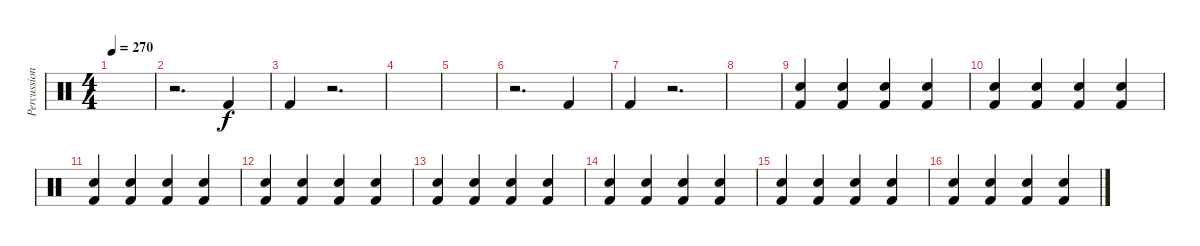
\track ("Percussion" "Percussion") {instrument percussion}
\staff {score}
\articulation defaults
\ts (4 4)
\tempo 270
\clef neutral
\ks c
|
r.2{d} "Kick (hit) 2".4 |
"Kick (hit) 2".4 r.2{d} |
|
|
r.2{d} "Kick (hit) 2".4 |
"Kick (hit) 2".4 r.2{d} |
|
("Electric Snare (hit)" "Kick (hit) 2").4{volume 8} ("Electric Snare (hit)" "Kick (hit) 2").4 ("Electric Snare (hit)" "Kick (hit) 2").4 ("Electric Snare (hit)" "Kick (hit) 2").4 |
("Electric Snare (hit)" "Kick (hit) 2").4 ("Electric Snare (hit)" "Kick (hit) 2").4 ("Electric Snare (hit)" "Kick (hit) 2").4 ("Electric Snare (hit)" "Kick (hit) 2").4 |
("Electric Snare (hit)" "Kick (hit) 2").4 ("Electric Snare (hit)" "Kick (hit) 2").4 ("Electric Snare (hit)" "Kick (hit) 2").4 ("Electric Snare (hit)" "Kick (hit) 2").4 |
("Electric Snare (hit)" "Kick (hit) 2").4 ("Electric Snare (hit)" "Kick (hit) 2").4 ("Electric Snare (hit)" "Kick (hit) 2").4 ("Electric Snare (hit)" "Kick (hit) 2").4 |
("Electric Snare (hit)" "Kick (hit) 2").4{volume 12} ("Electric Snare (hit)" "Kick (hit) 2").4 ("Electric Snare (hit)" "Kick (hit) 2").4 ("Electric Snare (hit)" "Kick (hit) 2").4 |
("Electric Snare (hit)" "Kick (hit) 2").4 ("Electric Snare (hit)" "Kick (hit) 2").4 ("Electric Snare (hit)" "Kick (hit) 2").4 ("Electric Snare (hit)" "Kick (hit) 2").4 |
("Electric Snare (hit)" "Kick (hit) 2").4 ("Electric Snare (hit)" "Kick (hit) 2").4 ("Electric Snare (hit)" "Kick (hit) 2").4 ("Electric Snare (hit)" "Kick (hit) 2").4 |
("Electric Snare (hit)" "Kick (hit) 2").4 ("Electric Snare (hit)" "Kick (hit) 2").4 ("Electric Snare (hit)" "Kick (hit) 2").4 ("Electric Snare (hit)" "Kick (hit) 2").4
